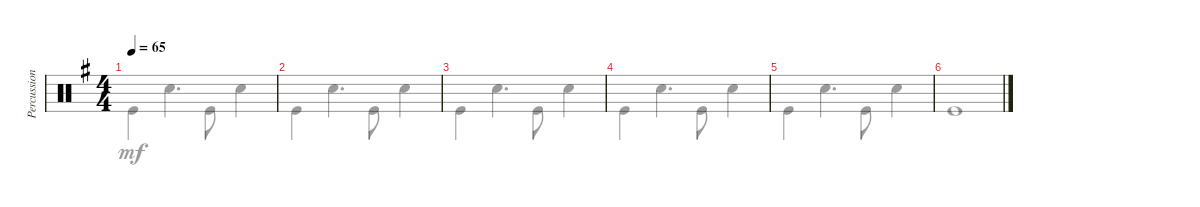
\track ("Percussion" "Percussion") {instrument percussion}
\staff {score}
\articulation defaults
\voice
\ts (4 4)
\tempo 65
\clef neutral
\ks eminor
|
|
|
|
|
\voice
\clef neutral
\ks eminor "Kick (hit)".4{dy mf} "Snare (hit) 2".4{d} "Kick (hit)".8 "Snare (hit) 2".4
|
"Kick (hit)".4 "Snare (hit) 2".4{d} "Kick (hit)".8 "Snare (hit) 2".4 |
"Kick (hit)".4 "Snare (hit) 2".4{d} "Kick (hit)".8 "Snare (hit) 2".4 |
"Kick (hit)".4 "Snare (hit) 2".4{d} "Kick (hit)".8 "Snare (hit) 2".4 |
"Kick (hit)".4 "Snare (hit) 2".4{d} "Kick (hit)".8 "Snare (hit) 2".4 |
"Kick (hit)".1
